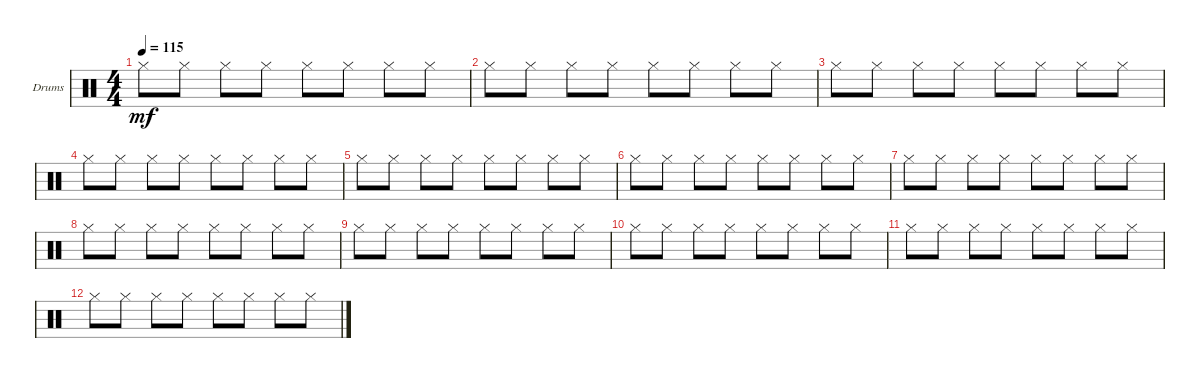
\defaultSystemsLayout 4
\bracketExtendMode groupsimilarinstruments
\firstSystemTrackNameOrientation horizontal
\otherSystemsTrackNameOrientation horizontal
\track ("Drumkit" "Drums") {instrument percussion}
\staff {score}
\articulation defaults
\ts (4 4)
\tempo 115
\clef neutral
\ks c "Hi-Hat (closed)".8{dy mf} "Hi-Hat (closed)".8 "Hi-Hat (closed)".8 "Hi-Hat (closed)".8 "Hi-Hat (closed)".8 "Hi-Hat (closed)".8 "Hi-Hat (closed)".8 "Hi-Hat (closed)".8
|
"Hi-Hat (closed)".8 "Hi-Hat (closed)".8 "Hi-Hat (closed)".8 "Hi-Hat (closed)".8 "Hi-Hat (closed)".8 "Hi-Hat (closed)".8 "Hi-Hat (closed)".8 "Hi-Hat (closed)".8 |
"Hi-Hat (closed)".8 "Hi-Hat (closed)".8 "Hi-Hat (closed)".8 "Hi-Hat (closed)".8 "Hi-Hat (closed)".8 "Hi-Hat (closed)".8 "Hi-Hat (closed)".8 "Hi-Hat (closed)".8 |
"Hi-Hat (closed)".8 "Hi-Hat (closed)".8 "Hi-Hat (closed)".8 "Hi-Hat (closed)".8 "Hi-Hat (closed)".8 "Hi-Hat (closed)".8 "Hi-Hat (closed)".8 "Hi-Hat (closed)".8 |
"Hi-Hat (closed)".8 "Hi-Hat (closed)".8 "Hi-Hat (closed)".8 "Hi-Hat (closed)".8 "Hi-Hat (closed)".8 "Hi-Hat (closed)".8 "Hi-Hat (closed)".8 "Hi-Hat (closed)".8 |
"Hi-Hat (closed)".8 "Hi-Hat (closed)".8 "Hi-Hat (closed)".8 "Hi-Hat (closed)".8 "Hi-Hat (closed)".8 "Hi-Hat (closed)".8 "Hi-Hat (closed)".8 "Hi-Hat (closed)".8 |
"Hi-Hat (closed)".8 "Hi-Hat (closed)".8 "Hi-Hat (closed)".8 "Hi-Hat (closed)".8 "Hi-Hat (closed)".8 "Hi-Hat (closed)".8 "Hi-Hat (closed)".8 "Hi-Hat (closed)".8 |
"Hi-Hat (closed)".8 "Hi-Hat (closed)".8 "Hi-Hat (closed)".8 "Hi-Hat (closed)".8 "Hi-Hat (closed)".8 "Hi-Hat (closed)".8 "Hi-Hat (closed)".8 "Hi-Hat (closed)".8 |
"Hi-Hat (closed)".8 "Hi-Hat (closed)".8 "Hi-Hat (closed)".8 "Hi-Hat (closed)".8 "Hi-Hat (closed)".8 "Hi-Hat (closed)".8 "Hi-Hat (closed)".8 "Hi-Hat (closed)".8 |
"Hi-Hat (closed)".8 "Hi-Hat (closed)".8 "Hi-Hat (closed)".8 "Hi-Hat (closed)".8 "Hi-Hat (closed)".8 "Hi-Hat (closed)".8 "Hi-Hat (closed)".8 "Hi-Hat (closed)".8 |
"Hi-Hat (closed)".8 "Hi-Hat (closed)".8 "Hi-Hat (closed)".8 "Hi-Hat (closed)".8 "Hi-Hat (closed)".8 "Hi-Hat (closed)".8 "Hi-Hat (closed)".8 "Hi-Hat (closed)".8 |
"Hi-Hat (closed)".8 "Hi-Hat (closed)".8 "Hi-Hat (closed)".8 "Hi-Hat (closed)".8 "Hi-Hat (closed)".8 "Hi-Hat (closed)".8 "Hi-Hat (closed)".8 "Hi-Hat (closed)".8
